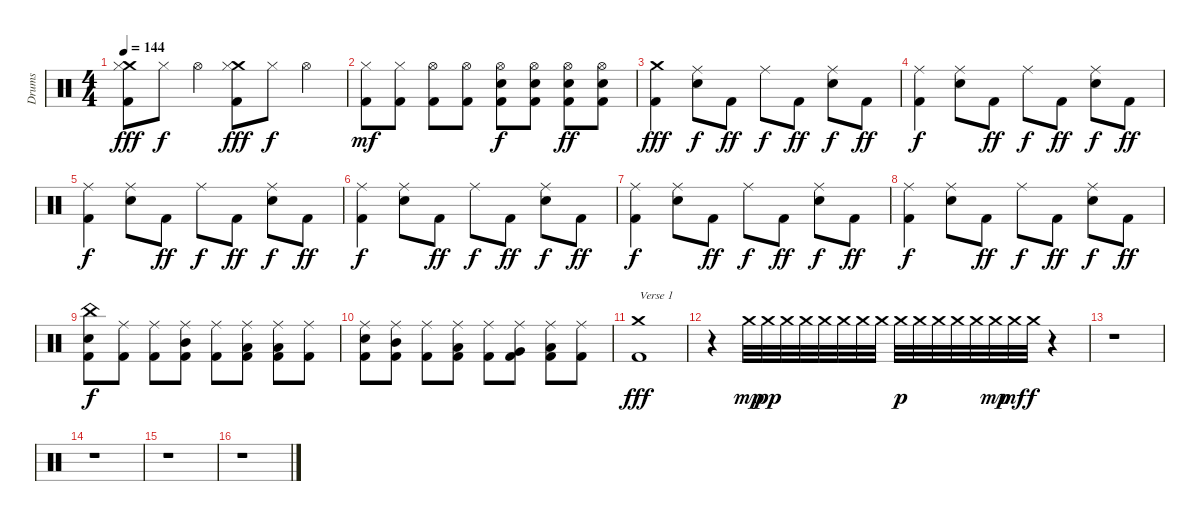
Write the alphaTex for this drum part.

\bracketExtendMode groupsimilarinstruments
\otherSystemsTrackNameOrientation horizontal
\track ("Drumkit" "Drums") {instrument percussion}
\staff {score}
\articulation defaults
\ts (4 4)
\tempo 144
\clef neutral
\ks c
("Crash medium (hit)" "Hi-Hat (closed)" "Kick (hit) 2").8{dy fff beam Down} "Hi-Hat (closed)".8{dy f beam Down} "Hi-Hat (open)".4{beam Down} ("Crash medium (hit)" "Hi-Hat (closed)" "Kick (hit) 2").8{dy fff beam Down} "Hi-Hat (closed)".8{dy f beam Down} "Hi-Hat (open)".4{beam Down} |
("Hi-Hat (closed)" "Kick (hit) 2").8{dy mf beam Down} ("Hi-Hat (closed)" "Kick (hit) 2").8{beam Down} ("Hi-Hat (open)" "Kick (hit) 2").8{beam Down} ("Hi-Hat (open)" "Kick (hit) 2").8{beam Down} ("Hi-Hat (open)" "Snare (hit) 2" "Kick (hit) 2").8{dy f beam Down} ("Hi-Hat (open)" "Snare (hit) 2" "Kick (hit) 2").8{beam Down} ("Hi-Hat (open)" "Snare (hit) 2" "Kick (hit) 2").8{dy ff beam Down} ("Hi-Hat (open)" "Snare (hit) 2" "Kick (hit) 2").8{beam Down} |
("Crash medium (hit)" "Kick (hit) 2").4{dy fff beam Down} ("Ride (middle)" "Snare (hit) 2").8{dy f beam Down} "Kick (hit) 2".8{dy ff beam Down} "Ride (middle)".8{dy f beam Down} "Kick (hit) 2".8{dy ff beam Down} ("Ride (middle)" "Snare (hit) 2").8{dy f beam Down} "Kick (hit) 2".8{dy ff beam Down} |
("Ride (middle)" "Kick (hit) 2").4{dy f beam Down} ("Ride (middle)" "Snare (hit) 2").8{beam Down} "Kick (hit) 2".8{dy ff beam Down} "Ride (middle)".8{dy f beam Down} "Kick (hit) 2".8{dy ff beam Down} ("Ride (middle)" "Snare (hit) 2").8{dy f beam Down} "Kick (hit) 2".8{dy ff beam Down} |
("Ride (middle)" "Kick (hit) 2").4{dy f beam Down} ("Ride (middle)" "Snare (hit) 2").8{beam Down} "Kick (hit) 2".8{dy ff beam Down} "Ride (middle)".8{dy f beam Down} "Kick (hit) 2".8{dy ff beam Down} ("Ride (middle)" "Snare (hit) 2").8{dy f beam Down} "Kick (hit) 2".8{dy ff beam Down} |
("Ride (middle)" "Kick (hit) 2").4{dy f beam Down} ("Ride (middle)" "Snare (hit) 2").8{beam Down} "Kick (hit) 2".8{dy ff beam Down} "Ride (middle)".8{dy f beam Down} "Kick (hit) 2".8{dy ff beam Down} ("Ride (middle)" "Snare (hit) 2").8{dy f beam Down} "Kick (hit) 2".8{dy ff beam Down} |
("Ride (middle)" "Kick (hit) 2").4{dy f beam Down} ("Ride (middle)" "Snare (hit) 2").8{beam Down} "Kick (hit) 2".8{dy ff beam Down} "Ride (middle)".8{dy f beam Down} "Kick (hit) 2".8{dy ff beam Down} ("Ride (middle)" "Snare (hit) 2").8{dy f beam Down} "Kick (hit) 2".8{dy ff beam Down} |
("Ride (middle)" "Kick (hit) 2").4{dy f beam Down} ("Ride (middle)" "Snare (hit) 2").8{beam Down} "Kick (hit) 2".8{dy ff beam Down} "Ride (middle)".8{dy f beam Down} "Kick (hit) 2".8{dy ff beam Down} ("Ride (middle)" "Snare (hit) 2").8{dy f beam Down} "Kick (hit) 2".8{dy ff beam Down} |
("China (hit)" "Snare (hit) 2" "Kick (hit) 2").8{dy f beam Down} ("Ride (middle)" "Kick (hit) 2").8{beam Down} ("Ride (middle)" "Kick (hit) 2").8{beam Down} ("Ride (middle)" "Mid Tom (hit)" "Kick (hit) 2").8{beam Down} ("Ride (middle)" "Kick (hit) 2").8{beam Down} ("Ride (middle)" "Low Tom (hit)" "Kick (hit) 2").8{beam Down} ("Ride (middle)" "Low Tom (hit)" "Kick (hit) 2").8{beam Down} ("Ride (middle)" "Kick (hit) 2").8{beam Down} |
("Ride (middle)" "Snare (hit) 2" "Kick (hit) 2").8{beam Down} ("Ride (middle)" "Mid Tom (hit)" "Kick (hit) 2").8{beam Down} ("Ride (middle)" "Kick (hit) 2").8{beam Down} ("Ride (middle)" "Low Tom (hit)" "Kick (hit) 2").8{beam Down} ("Ride (middle)" "Kick (hit) 2").8{beam Down} ("Ride (middle)" "Very Low Tom (hit)" "Kick (hit) 2").8{beam Down} ("Ride (middle)" "Low Tom (hit)" "Kick (hit) 2").8{beam Down} ("Ride (middle)" "Kick (hit) 2").8{beam Down} |
("Crash medium (hit)" "Kick (hit) 2").1{txt "Verse 1" dy fff beam Down} |
r.4{beam Down} "Crash medium (hit)".32{dy mp beam Down} "Crash medium (hit)".32{dy pp beam Down} "Crash medium (hit)".32{beam Down} "Crash medium (hit)".32{beam Down} "Crash medium (hit)".32{beam Down} "Crash medium (hit)".32{beam Down} "Crash medium (hit)".32{beam Down} "Crash medium (hit)".32{beam Down} "Crash medium (hit)".32{dy p beam Down} "Crash medium (hit)".32{beam Down} "Crash medium (hit)".32{beam Down} "Crash medium (hit)".32{beam Down} "Crash medium (hit)".32{beam Down} "Crash medium (hit)".32{dy mp beam Down} "Crash medium (hit)".32{dy mf beam Down} "Crash medium (hit)".32{dy f beam Down} r.4{beam Down} |
r.1{beam Down} |
r.1{beam Down} |
r.1{beam Down} |
r.1{beam Down}
